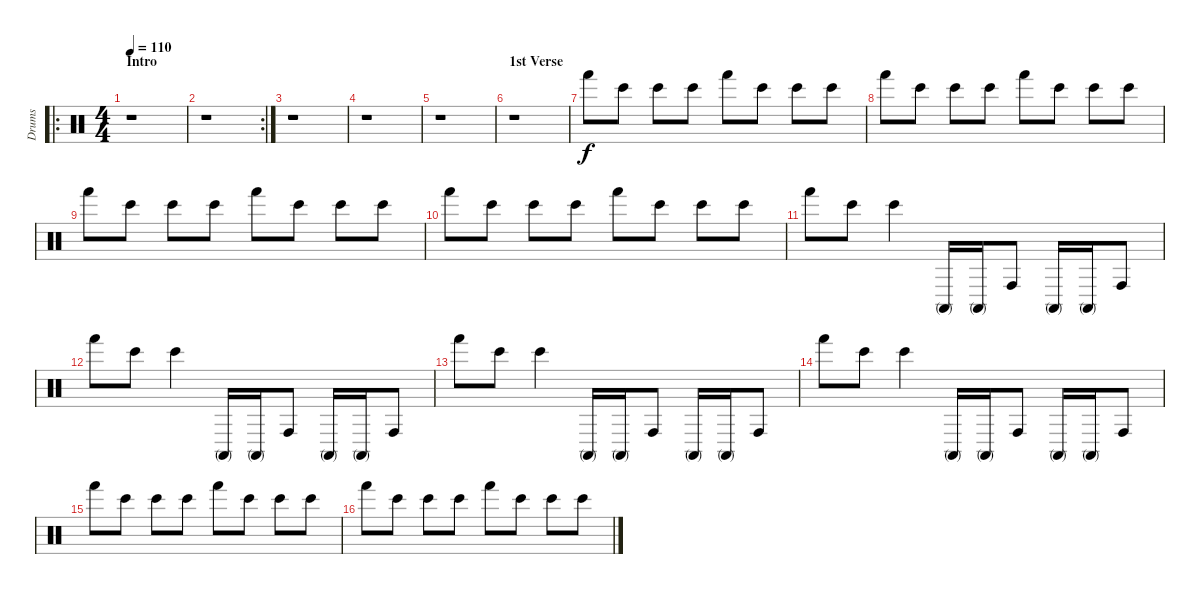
\track ("Drums" "Drums") {instrument percussion}
\staff {score}
\articulation defaults
\ro
\ts (4 4)
\section ("" "Intro")
\tempo 110
\clef neutral
\ks c
r.1{dy f} |
\rc 2
r.1 |
r.1 |
r.1 |
r.1 |
\section ("" "1st Verse")
r.1 |
"Hand (hit)".8 "Bongo High (hit)".8 "Bongo High (hit)".8 "Bongo High (hit)".8 "Hand (hit)".8 "Bongo High (hit)".8 "Bongo High (hit)".8 "Bongo High (hit)".8 |
"Hand (hit)".8 "Bongo High (hit)".8 "Bongo High (hit)".8 "Bongo High (hit)".8 "Hand (hit)".8 "Bongo High (hit)".8 "Bongo High (hit)".8 "Bongo High (hit)".8 |
"Hand (hit)".8 "Bongo High (hit)".8 "Bongo High (hit)".8 "Bongo High (hit)".8 "Hand (hit)".8 "Bongo High (hit)".8 "Bongo High (hit)".8 "Bongo High (hit)".8 |
"Hand (hit)".8 "Bongo High (hit)".8 "Bongo High (hit)".8 "Bongo High (hit)".8 "Hand (hit)".8 "Bongo High (hit)".8 "Bongo High (hit)".8 "Bongo High (hit)".8 |
"Hand (hit)".8 "Bongo High (hit)".8 "Bongo High (hit)".4 "Conga high (mute)".16 "Conga high (mute)".16 "Conga high (hit)".8 "Conga high (mute)".16 "Conga high (mute)".16 "Conga high (hit)".8 |
"Hand (hit)".8 "Bongo High (hit)".8 "Bongo High (hit)".4 "Conga high (mute)".16 "Conga high (mute)".16 "Conga high (hit)".8 "Conga high (mute)".16 "Conga high (mute)".16 "Conga high (hit)".8 |
"Hand (hit)".8 "Bongo High (hit)".8 "Bongo High (hit)".4 "Conga high (mute)".16 "Conga high (mute)".16 "Conga high (hit)".8 "Conga high (mute)".16 "Conga high (mute)".16 "Conga high (hit)".8 |
"Hand (hit)".8 "Bongo High (hit)".8 "Bongo High (hit)".4 "Conga high (mute)".16 "Conga high (mute)".16 "Conga high (hit)".8 "Conga high (mute)".16 "Conga high (mute)".16 "Conga high (hit)".8 |
"Hand (hit)".8 "Bongo High (hit)".8 "Bongo High (hit)".8 "Bongo High (hit)".8 "Hand (hit)".8 "Bongo High (hit)".8 "Bongo High (hit)".8 "Bongo High (hit)".8 |
"Hand (hit)".8 "Bongo High (hit)".8 "Bongo High (hit)".8 "Bongo High (hit)".8 "Hand (hit)".8 "Bongo High (hit)".8 "Bongo High (hit)".8 "Bongo High (hit)".8
